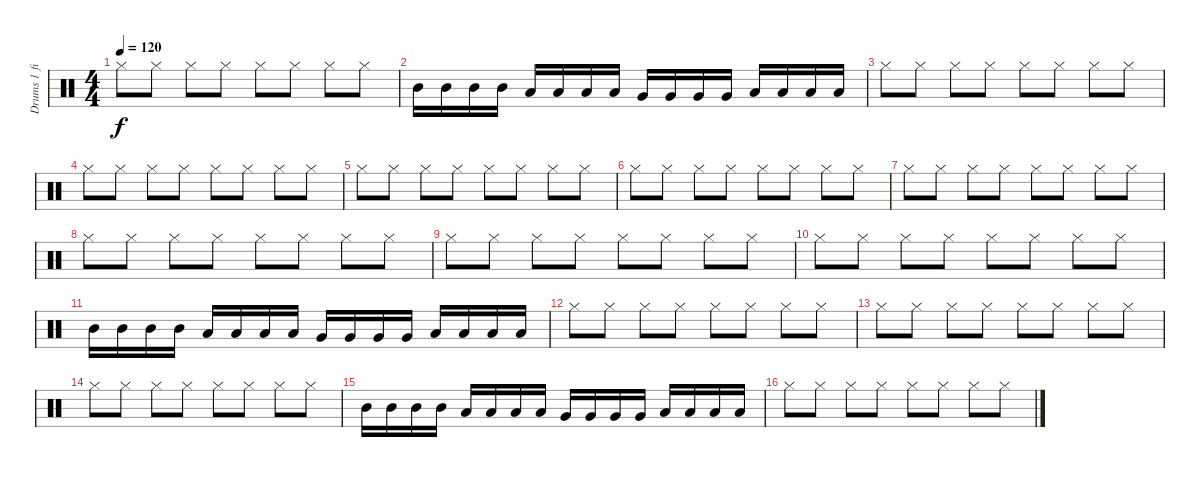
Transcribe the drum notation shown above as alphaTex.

\track ("Drums 1 filler" "Drums 1 fi") {instrument percussion}
\staff {score}
\articulation defaults
\ts (4 4)
\tempo 120
\clef neutral
\ks c "Hi-Hat (closed)".8{dy f} "Hi-Hat (closed)".8 "Hi-Hat (closed)".8 "Hi-Hat (closed)".8 "Hi-Hat (closed)".8 "Hi-Hat (closed)".8 "Hi-Hat (closed)".8 "Hi-Hat (closed)".8
|
"Mid Tom (hit)".16 "Mid Tom (hit)".16 "Mid Tom (hit)".16 "Mid Tom (hit)".16 "Low Tom (hit)".16 "Low Tom (hit)".16 "Low Tom (hit)".16 "Low Tom (hit)".16 "Very Low Tom (hit)".16 "Very Low Tom (hit)".16 "Very Low Tom (hit)".16 "Very Low Tom (hit)".16 "Low Floor Tom (hit)".16 "Low Floor Tom (hit)".16 "Low Floor Tom (hit)".16 "Low Floor Tom (hit)".16 |
"Hi-Hat (closed)".8 "Hi-Hat (closed)".8 "Hi-Hat (closed)".8 "Hi-Hat (closed)".8 "Hi-Hat (closed)".8 "Hi-Hat (closed)".8 "Hi-Hat (closed)".8 "Hi-Hat (closed)".8 |
"Hi-Hat (closed)".8 "Hi-Hat (closed)".8 "Hi-Hat (closed)".8 "Hi-Hat (closed)".8 "Hi-Hat (closed)".8 "Hi-Hat (closed)".8 "Hi-Hat (closed)".8 "Hi-Hat (closed)".8 |
"Hi-Hat (closed)".8 "Hi-Hat (closed)".8 "Hi-Hat (closed)".8 "Hi-Hat (closed)".8 "Hi-Hat (closed)".8 "Hi-Hat (closed)".8 "Hi-Hat (closed)".8 "Hi-Hat (closed)".8 |
"Hi-Hat (closed)".8 "Hi-Hat (closed)".8 "Hi-Hat (closed)".8 "Hi-Hat (closed)".8 "Hi-Hat (closed)".8 "Hi-Hat (closed)".8 "Hi-Hat (closed)".8 "Hi-Hat (closed)".8 |
"Hi-Hat (closed)".8 "Hi-Hat (closed)".8 "Hi-Hat (closed)".8 "Hi-Hat (closed)".8 "Hi-Hat (closed)".8 "Hi-Hat (closed)".8 "Hi-Hat (closed)".8 "Hi-Hat (closed)".8 |
"Hi-Hat (closed)".8 "Hi-Hat (closed)".8 "Hi-Hat (closed)".8 "Hi-Hat (closed)".8 "Hi-Hat (closed)".8 "Hi-Hat (closed)".8 "Hi-Hat (closed)".8 "Hi-Hat (closed)".8 |
"Hi-Hat (closed)".8 "Hi-Hat (closed)".8 "Hi-Hat (closed)".8 "Hi-Hat (closed)".8 "Hi-Hat (closed)".8 "Hi-Hat (closed)".8 "Hi-Hat (closed)".8 "Hi-Hat (closed)".8 |
"Hi-Hat (closed)".8 "Hi-Hat (closed)".8 "Hi-Hat (closed)".8 "Hi-Hat (closed)".8 "Hi-Hat (closed)".8 "Hi-Hat (closed)".8 "Hi-Hat (closed)".8 "Hi-Hat (closed)".8 |
"Mid Tom (hit)".16 "Mid Tom (hit)".16 "Mid Tom (hit)".16 "Mid Tom (hit)".16 "Low Tom (hit)".16 "Low Tom (hit)".16 "Low Tom (hit)".16 "Low Tom (hit)".16 "Very Low Tom (hit)".16 "Very Low Tom (hit)".16 "Very Low Tom (hit)".16 "Very Low Tom (hit)".16 "Low Floor Tom (hit)".16 "Low Floor Tom (hit)".16 "Low Floor Tom (hit)".16 "Low Floor Tom (hit)".16 |
"Hi-Hat (closed)".8 "Hi-Hat (closed)".8 "Hi-Hat (closed)".8 "Hi-Hat (closed)".8 "Hi-Hat (closed)".8 "Hi-Hat (closed)".8 "Hi-Hat (closed)".8 "Hi-Hat (closed)".8 |
"Hi-Hat (closed)".8 "Hi-Hat (closed)".8 "Hi-Hat (closed)".8 "Hi-Hat (closed)".8 "Hi-Hat (closed)".8 "Hi-Hat (closed)".8 "Hi-Hat (closed)".8 "Hi-Hat (closed)".8 |
"Hi-Hat (closed)".8 "Hi-Hat (closed)".8 "Hi-Hat (closed)".8 "Hi-Hat (closed)".8 "Hi-Hat (closed)".8 "Hi-Hat (closed)".8 "Hi-Hat (closed)".8 "Hi-Hat (closed)".8 |
"Mid Tom (hit)".16 "Mid Tom (hit)".16 "Mid Tom (hit)".16 "Mid Tom (hit)".16 "Low Tom (hit)".16 "Low Tom (hit)".16 "Low Tom (hit)".16 "Low Tom (hit)".16 "Very Low Tom (hit)".16 "Very Low Tom (hit)".16 "Very Low Tom (hit)".16 "Very Low Tom (hit)".16 "Low Floor Tom (hit)".16 "Low Floor Tom (hit)".16 "Low Floor Tom (hit)".16 "Low Floor Tom (hit)".16 |
"Hi-Hat (closed)".8 "Hi-Hat (closed)".8 "Hi-Hat (closed)".8 "Hi-Hat (closed)".8 "Hi-Hat (closed)".8 "Hi-Hat (closed)".8 "Hi-Hat (closed)".8 "Hi-Hat (closed)".8
